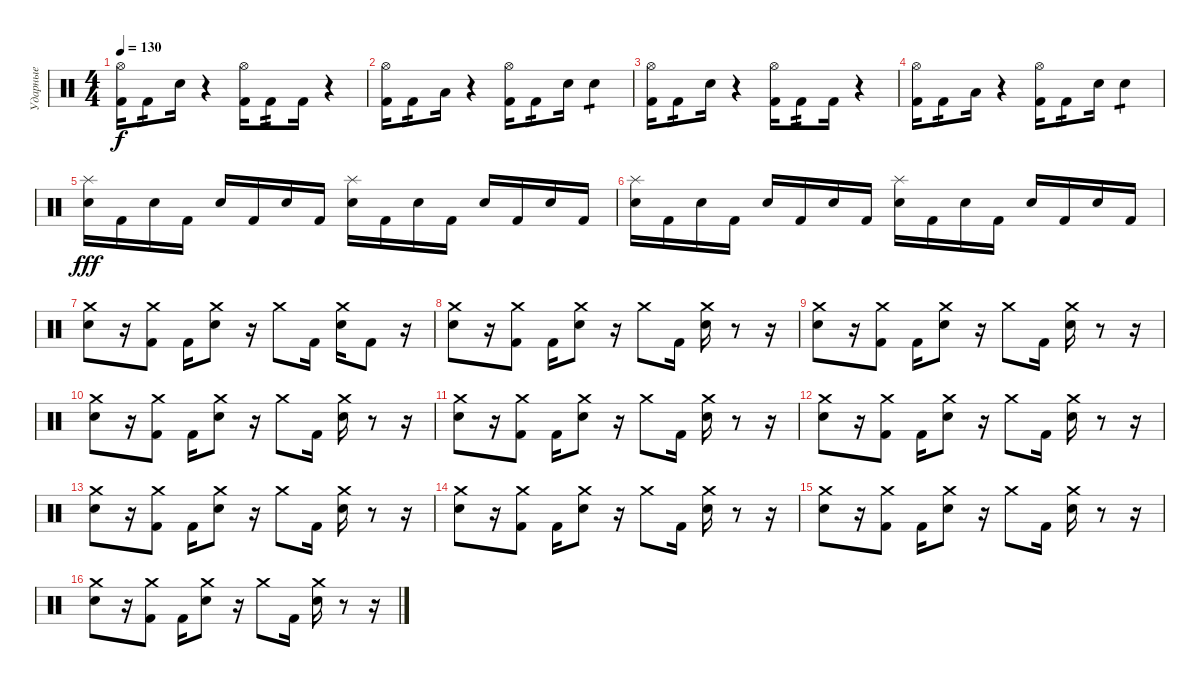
\track ("Ударные" "Ударные") {instrument percussion}
\staff {score}
\articulation defaults
\ts (4 4)
\tempo 130
\clef neutral
\ks c
("Hi-Hat (open)" "Kick (hit) 2").16{dy f} "Kick (hit) 2".8{tp 2} "Snare (hit) 2".16 r.4 ("Hi-Hat (open)" "Kick (hit) 2").16 "Kick (hit) 2".8{tp 2} "Kick (hit) 2".16 r.4 |
("Hi-Hat (open)" "Kick (hit) 2").16 "Kick (hit) 2".8{tp 2} "Low Floor Tom (hit)".16 r.4 ("Hi-Hat (open)" "Kick (hit) 2").16 "Kick (hit) 2".8{tp 2} "Snare (hit) 2".16 "Snare (hit) 2".4{tp 1} |
("Hi-Hat (open)" "Kick (hit) 2").16 "Kick (hit) 2".8{tp 2} "Snare (hit) 2".16 r.4 ("Hi-Hat (open)" "Kick (hit) 2").16 "Kick (hit) 2".8{tp 2} "Kick (hit) 2".16 r.4 |
("Hi-Hat (open)" "Kick (hit) 2").16 "Kick (hit) 2".8{tp 2} "Low Floor Tom (hit)".16 r.4 ("Hi-Hat (open)" "Kick (hit) 2").16 "Kick (hit) 2".8{tp 2} "Snare (hit) 2".16 "Snare (hit) 2".4{tp 1} |
("Splash (hit)" "Electric Snare (hit)").16{dy fff} "Kick (hit) 2".16 "Electric Snare (hit)".16 "Kick (hit) 2".16 "Electric Snare (hit)".16 "Kick (hit) 2".16 "Electric Snare (hit)".16 "Kick (hit) 2".16 ("Splash (hit)" "Electric Snare (hit)").16 "Kick (hit) 2".16 "Electric Snare (hit)".16 "Kick (hit) 2".16 "Electric Snare (hit)".16 "Kick (hit) 2".16 "Electric Snare (hit)".16 "Kick (hit) 2".16 |
("Splash (hit)" "Electric Snare (hit)").16 "Kick (hit) 2".16 "Electric Snare (hit)".16 "Kick (hit) 2".16 "Electric Snare (hit)".16 "Kick (hit) 2".16 "Electric Snare (hit)".16 "Kick (hit) 2".16 ("Splash (hit)" "Electric Snare (hit)").16 "Kick (hit) 2".16 "Electric Snare (hit)".16 "Kick (hit) 2".16 "Electric Snare (hit)".16 "Kick (hit) 2".16 "Electric Snare (hit)".16 "Kick (hit) 2".16 |
("Crash medium (hit)" "Electric Snare (hit)").8 r.16 ("Crash medium (hit)" "Kick (hit) 2").8 "Kick (hit) 2".16 ("Crash medium (hit)" "Electric Snare (hit)").8 r.16 "Crash medium (hit)".8 "Kick (hit) 2".16 ("Crash medium (hit)" "Electric Snare (hit)").16 "Kick (hit) 2".8 r.16 |
("Crash medium (hit)" "Electric Snare (hit)").8 r.16 ("Crash medium (hit)" "Kick (hit) 2").8 "Kick (hit) 2".16 ("Crash medium (hit)" "Electric Snare (hit)").8 r.16 "Crash medium (hit)".8 "Kick (hit) 2".16 ("Crash medium (hit)" "Electric Snare (hit)").16 r.8 r.16 |
("Crash medium (hit)" "Electric Snare (hit)").8 r.16 ("Crash medium (hit)" "Kick (hit) 2").8 "Kick (hit) 2".16 ("Crash medium (hit)" "Electric Snare (hit)").8 r.16 "Crash medium (hit)".8 "Kick (hit) 2".16 ("Crash medium (hit)" "Electric Snare (hit)").16 r.8 r.16 |
("Crash medium (hit)" "Electric Snare (hit)").8 r.16 ("Crash medium (hit)" "Kick (hit) 2").8 "Kick (hit) 2".16 ("Crash medium (hit)" "Electric Snare (hit)").8 r.16 "Crash medium (hit)".8 "Kick (hit) 2".16 ("Crash medium (hit)" "Electric Snare (hit)").16 r.8 r.16 |
("Crash medium (hit)" "Electric Snare (hit)").8 r.16 ("Crash medium (hit)" "Kick (hit) 2").8 "Kick (hit) 2".16 ("Crash medium (hit)" "Electric Snare (hit)").8 r.16 "Crash medium (hit)".8 "Kick (hit) 2".16 ("Crash medium (hit)" "Electric Snare (hit)").16 r.8 r.16 |
("Crash medium (hit)" "Electric Snare (hit)").8 r.16 ("Crash medium (hit)" "Kick (hit) 2").8 "Kick (hit) 2".16 ("Crash medium (hit)" "Electric Snare (hit)").8 r.16 "Crash medium (hit)".8 "Kick (hit) 2".16 ("Crash medium (hit)" "Electric Snare (hit)").16 r.8 r.16 |
("Crash medium (hit)" "Electric Snare (hit)").8 r.16 ("Crash medium (hit)" "Kick (hit) 2").8 "Kick (hit) 2".16 ("Crash medium (hit)" "Electric Snare (hit)").8 r.16 "Crash medium (hit)".8 "Kick (hit) 2".16 ("Crash medium (hit)" "Electric Snare (hit)").16 r.8 r.16 |
("Crash medium (hit)" "Electric Snare (hit)").8 r.16 ("Crash medium (hit)" "Kick (hit) 2").8 "Kick (hit) 2".16 ("Crash medium (hit)" "Electric Snare (hit)").8 r.16 "Crash medium (hit)".8 "Kick (hit) 2".16 ("Crash medium (hit)" "Electric Snare (hit)").16 r.8 r.16 |
("Crash medium (hit)" "Electric Snare (hit)").8 r.16 ("Crash medium (hit)" "Kick (hit) 2").8 "Kick (hit) 2".16 ("Crash medium (hit)" "Electric Snare (hit)").8 r.16 "Crash medium (hit)".8 "Kick (hit) 2".16 ("Crash medium (hit)" "Electric Snare (hit)").16 r.8 r.16 |
("Crash medium (hit)" "Electric Snare (hit)").8 r.16 ("Crash medium (hit)" "Kick (hit) 2").8 "Kick (hit) 2".16 ("Crash medium (hit)" "Electric Snare (hit)").8 r.16 "Crash medium (hit)".8 "Kick (hit) 2".16 ("Crash medium (hit)" "Electric Snare (hit)").16 r.8 r.16
